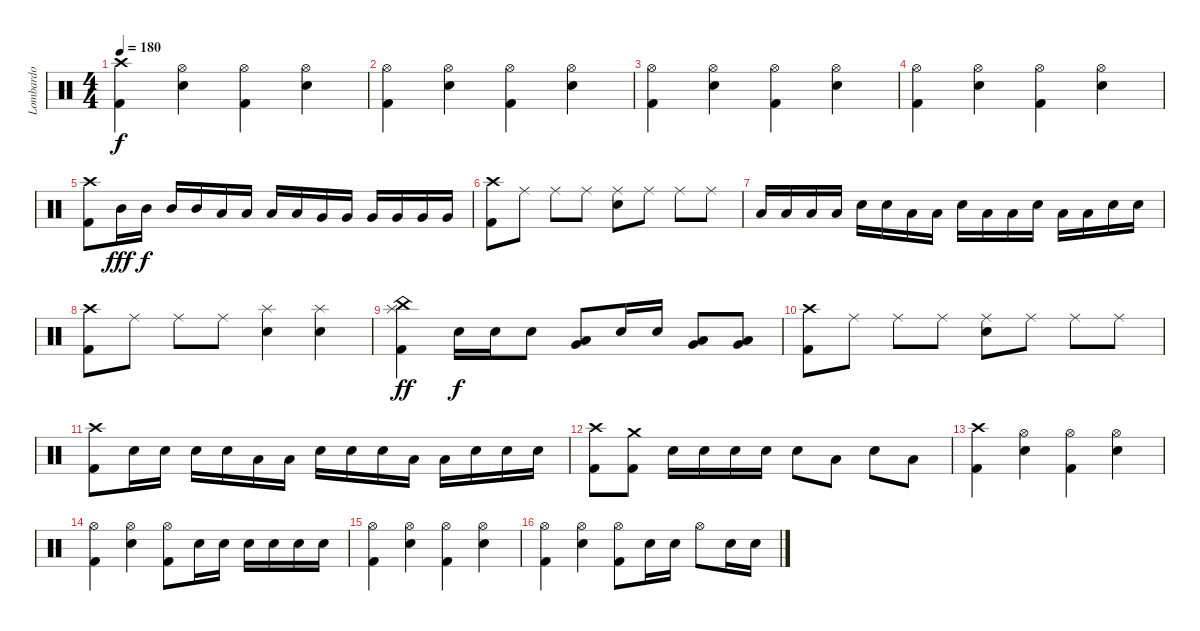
\track ("Lombardo" "Lombardo") {instrument percussion}
\staff {score}
\articulation defaults
\ts (4 4)
\tempo 180
\clef neutral
\ks c
("Crash high (hit)" "Kick (hit) 2").4{dy f} ("Electric Snare (hit)" "Hi-Hat (open)").4 ("Kick (hit) 2" "Hi-Hat (open)").4 ("Electric Snare (hit)" "Hi-Hat (open)").4 |
("Hi-Hat (open)" "Kick (hit) 2").4 ("Electric Snare (hit)" "Hi-Hat (open)").4 ("Kick (hit) 2" "Hi-Hat (open)").4 ("Electric Snare (hit)" "Hi-Hat (open)").4 |
("Hi-Hat (open)" "Kick (hit) 2").4 ("Electric Snare (hit)" "Hi-Hat (open)").4 ("Kick (hit) 2" "Hi-Hat (open)").4 ("Electric Snare (hit)" "Hi-Hat (open)").4 |
("Hi-Hat (open)" "Kick (hit) 2").4 ("Electric Snare (hit)" "Hi-Hat (open)").4 ("Kick (hit) 2" "Hi-Hat (open)").4 ("Electric Snare (hit)" "Hi-Hat (open)").4 |
("Crash high (hit)" "Kick (hit) 2").8 "Mid Tom (hit)".16{dy fff} "Mid Tom (hit)".16{dy f} "Mid Tom (hit)".16 "Mid Tom (hit)".16 "Low Tom (hit)".16 "Low Tom (hit)".16 "Low Tom (hit)".16 "Low Tom (hit)".16 "Very Low Tom (hit)".16 "Very Low Tom (hit)".16 "Very Low Tom (hit)".16 "Very Low Tom (hit)".16 "Very Low Tom (hit)".16 "Very Low Tom (hit)".16 |
("Crash high (hit)" "Kick (hit) 2").8 "Ride (middle)".8 "Ride (middle)".8 "Ride (middle)".8 ("Electric Snare (hit)" "Ride (middle)").8 "Ride (middle)".8 "Ride (middle)".8 "Ride (middle)".8 |
"Low Tom (hit)".16 "Low Tom (hit)".16 "Low Tom (hit)".16 "Low Tom (hit)".16 "Electric Snare (hit)".16 "Electric Snare (hit)".16 "Low Tom (hit)".16 "Low Tom (hit)".16 "Electric Snare (hit)".16 "Low Tom (hit)".16 "Low Tom (hit)".16 "Electric Snare (hit)".16 "Low Tom (hit)".16 "Low Tom (hit)".16 "Electric Snare (hit)".16 "Electric Snare (hit)".16 |
("Crash high (hit)" "Kick (hit) 2").8 "Ride (middle)".8 "Ride (middle)".8 "Ride (middle)".8 ("Electric Snare (hit)" "Splash (hit)").4 ("Electric Snare (hit)" "Splash (hit)").4 |
("China (hit)" "Splash (hit)" "Kick (hit) 2").4{dy ff} "Electric Snare (hit)".16{dy f} "Electric Snare (hit)".16 "Electric Snare (hit)".8 ("Very Low Tom (hit)" "Low Tom (hit)").8 "Electric Snare (hit)".16 "Electric Snare (hit)".16 ("Very Low Tom (hit)" "Low Tom (hit)").8 ("Very Low Tom (hit)" "Low Tom (hit)").8 |
("Crash high (hit)" "Kick (hit) 2").8 "Ride (middle)".8 "Ride (middle)".8 "Ride (middle)".8 ("Electric Snare (hit)" "Ride (middle)").8 "Ride (middle)".8 "Ride (middle)".8 "Ride (middle)".8 |
("Crash high (hit)" "Kick (hit) 2").8 "Electric Snare (hit)".16 "Electric Snare (hit)".16 "Electric Snare (hit)".16 "Electric Snare (hit)".16 "Low Tom (hit)".16 "Low Tom (hit)".16 "Electric Snare (hit)".16 "Electric Snare (hit)".16 "Electric Snare (hit)".16 "Low Tom (hit)".16 "Low Tom (hit)".16 "Electric Snare (hit)".16 "Electric Snare (hit)".16 "Electric Snare (hit)".16 |
("Crash high (hit)" "Kick (hit) 2").8 ("Crash medium (hit)" "Kick (hit) 2").8 "Electric Snare (hit)".16 "Electric Snare (hit)".16 "Electric Snare (hit)".16 "Electric Snare (hit)".16 "Electric Snare (hit)".8 "Low Tom (hit)".8 "Electric Snare (hit)".8 "Low Tom (hit)".8 |
("Crash high (hit)" "Kick (hit) 2").4 ("Electric Snare (hit)" "Hi-Hat (open)").4 ("Kick (hit) 2" "Hi-Hat (open)").4 ("Electric Snare (hit)" "Hi-Hat (open)").4 |
("Hi-Hat (open)" "Kick (hit) 2").4 ("Electric Snare (hit)" "Hi-Hat (open)").4 ("Kick (hit) 2" "Hi-Hat (open)").8 "Electric Snare (hit)".16 "Electric Snare (hit)".16 "Electric Snare (hit)".16 "Electric Snare (hit)".16 "Electric Snare (hit)".16 "Electric Snare (hit)".16 |
("Hi-Hat (open)" "Kick (hit) 2").4 ("Electric Snare (hit)" "Hi-Hat (open)").4 ("Kick (hit) 2" "Hi-Hat (open)").4 ("Electric Snare (hit)" "Hi-Hat (open)").4 |
("Hi-Hat (open)" "Kick (hit) 2").4 ("Electric Snare (hit)" "Hi-Hat (open)").4 ("Kick (hit) 2" "Hi-Hat (open)").8 "Electric Snare (hit)".16 "Electric Snare (hit)".16 "Hi-Hat (open)".8 "Electric Snare (hit)".16 "Electric Snare (hit)".16
